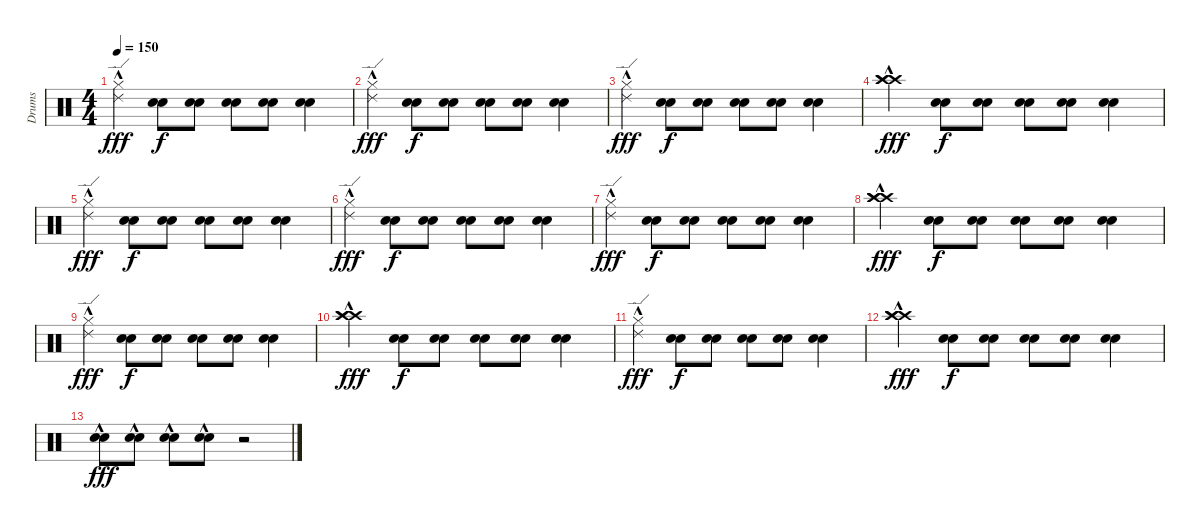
\track ("Drums" "Drums") {instrument percussion}
\staff {score}
\articulation defaults
\ts (4 4)
\tempo 150
\clef neutral
\ks c
("Hi-Hat (closed)" "Ride (edge) 2"{hac}).4{dy fff} ("Electric Snare (hit)" "Electric Snare (hit)").8{dy f} ("Electric Snare (hit)" "Electric Snare (hit)").8 ("Electric Snare (hit)" "Electric Snare (hit)").8 ("Electric Snare (hit)" "Electric Snare (hit)").8 ("Electric Snare (hit)" "Electric Snare (hit)").4 |
("Hi-Hat (closed)" "Ride (edge) 2"{hac}).4{dy fff} ("Electric Snare (hit)" "Electric Snare (hit)").8{dy f} ("Electric Snare (hit)" "Electric Snare (hit)").8 ("Electric Snare (hit)" "Electric Snare (hit)").8 ("Electric Snare (hit)" "Electric Snare (hit)").8 ("Electric Snare (hit)" "Electric Snare (hit)").4 |
("Hi-Hat (closed)" "Ride (edge) 2"{hac}).4{dy fff} ("Electric Snare (hit)" "Electric Snare (hit)").8{dy f} ("Electric Snare (hit)" "Electric Snare (hit)").8 ("Electric Snare (hit)" "Electric Snare (hit)").8 ("Electric Snare (hit)" "Electric Snare (hit)").8 ("Electric Snare (hit)" "Electric Snare (hit)").4 |
("Crash high (hit)"{hac} "Crash high (hit)"{hac} "Crash high (hit)"{hac}).4{dy fff} ("Electric Snare (hit)" "Electric Snare (hit)").8{dy f} ("Electric Snare (hit)" "Electric Snare (hit)").8 ("Electric Snare (hit)" "Electric Snare (hit)").8 ("Electric Snare (hit)" "Electric Snare (hit)").8 ("Electric Snare (hit)" "Electric Snare (hit)").4 |
("Hi-Hat (closed)" "Ride (edge) 2"{hac}).4{dy fff} ("Electric Snare (hit)" "Electric Snare (hit)").8{dy f} ("Electric Snare (hit)" "Electric Snare (hit)").8 ("Electric Snare (hit)" "Electric Snare (hit)").8 ("Electric Snare (hit)" "Electric Snare (hit)").8 ("Electric Snare (hit)" "Electric Snare (hit)").4 |
("Hi-Hat (closed)" "Ride (edge) 2"{hac}).4{dy fff} ("Electric Snare (hit)" "Electric Snare (hit)").8{dy f} ("Electric Snare (hit)" "Electric Snare (hit)").8 ("Electric Snare (hit)" "Electric Snare (hit)").8 ("Electric Snare (hit)" "Electric Snare (hit)").8 ("Electric Snare (hit)" "Electric Snare (hit)").4 |
("Hi-Hat (closed)" "Ride (edge) 2"{hac}).4{dy fff} ("Electric Snare (hit)" "Electric Snare (hit)").8{dy f} ("Electric Snare (hit)" "Electric Snare (hit)").8 ("Electric Snare (hit)" "Electric Snare (hit)").8 ("Electric Snare (hit)" "Electric Snare (hit)").8 ("Electric Snare (hit)" "Electric Snare (hit)").4 |
("Crash high (hit)"{hac} "Crash high (hit)"{hac} "Crash high (hit)"{hac}).4{dy fff} ("Electric Snare (hit)" "Electric Snare (hit)").8{dy f} ("Electric Snare (hit)" "Electric Snare (hit)").8 ("Electric Snare (hit)" "Electric Snare (hit)").8 ("Electric Snare (hit)" "Electric Snare (hit)").8 ("Electric Snare (hit)" "Electric Snare (hit)").4 |
("Hi-Hat (closed)" "Ride (edge) 2"{hac}).4{dy fff} ("Electric Snare (hit)" "Electric Snare (hit)").8{dy f} ("Electric Snare (hit)" "Electric Snare (hit)").8 ("Electric Snare (hit)" "Electric Snare (hit)").8 ("Electric Snare (hit)" "Electric Snare (hit)").8 ("Electric Snare (hit)" "Electric Snare (hit)").4 |
("Crash high (hit)"{hac} "Crash high (hit)"{hac} "Crash high (hit)"{hac}).4{dy fff} ("Electric Snare (hit)" "Electric Snare (hit)").8{dy f} ("Electric Snare (hit)" "Electric Snare (hit)").8 ("Electric Snare (hit)" "Electric Snare (hit)").8 ("Electric Snare (hit)" "Electric Snare (hit)").8 ("Electric Snare (hit)" "Electric Snare (hit)").4 |
("Hi-Hat (closed)" "Ride (edge) 2"{hac}).4{dy fff} ("Electric Snare (hit)" "Electric Snare (hit)").8{dy f} ("Electric Snare (hit)" "Electric Snare (hit)").8 ("Electric Snare (hit)" "Electric Snare (hit)").8 ("Electric Snare (hit)" "Electric Snare (hit)").8 ("Electric Snare (hit)" "Electric Snare (hit)").4 |
("Crash high (hit)"{hac} "Crash high (hit)"{hac} "Crash high (hit)"{hac}).4{dy fff} ("Electric Snare (hit)" "Electric Snare (hit)").8{dy f} ("Electric Snare (hit)" "Electric Snare (hit)").8 ("Electric Snare (hit)" "Electric Snare (hit)").8 ("Electric Snare (hit)" "Electric Snare (hit)").8 ("Electric Snare (hit)" "Electric Snare (hit)").4 |
("Snare (hit) 2"{hac} "Snare (hit) 2"{hac}).8{dy fff} ("Snare (hit) 2"{hac} "Snare (hit) 2"{hac}).8 ("Snare (hit) 2"{hac} "Snare (hit) 2"{hac}).8 ("Snare (hit) 2"{hac} "Snare (hit) 2"{hac}).8 r.2
